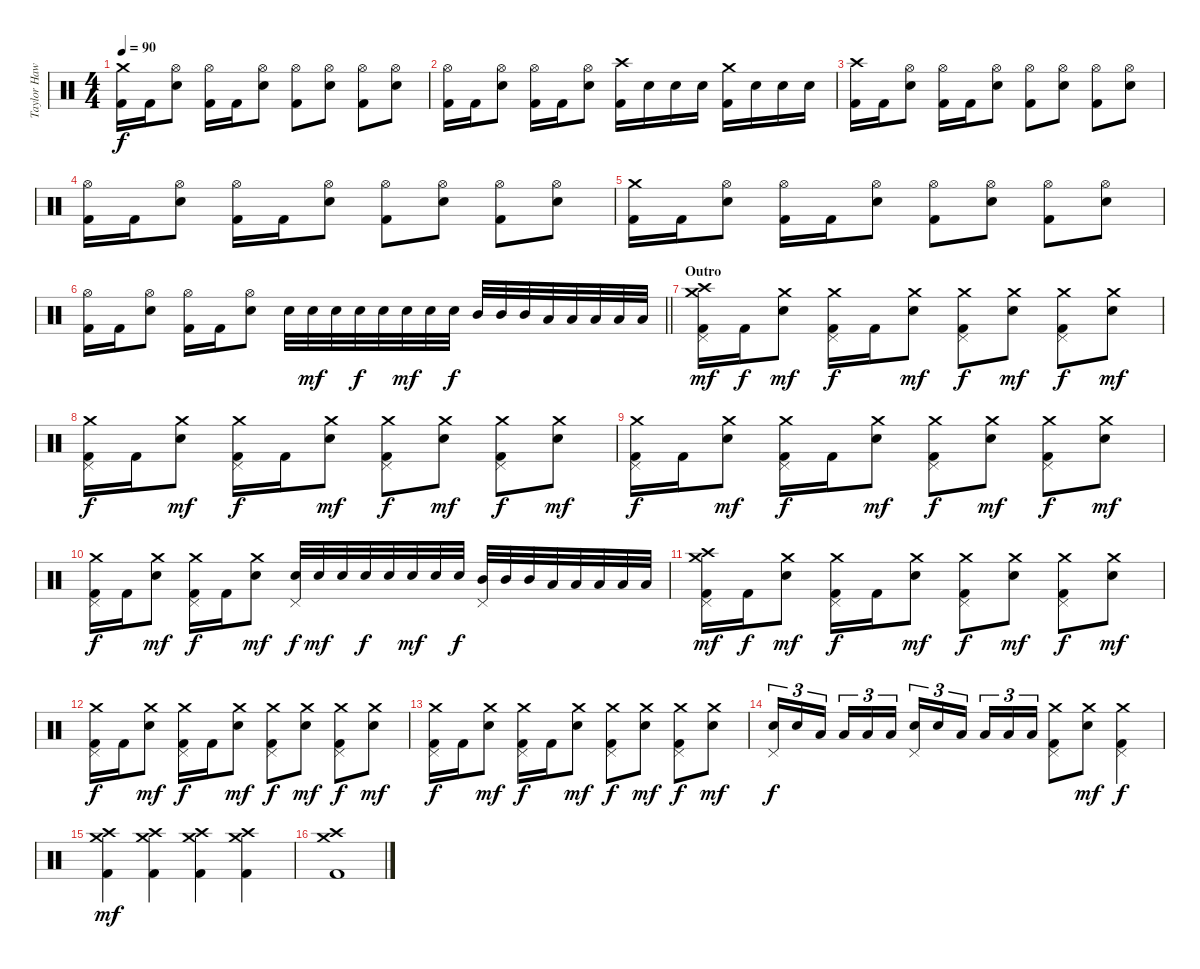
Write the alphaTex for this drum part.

\track ("Taylor Hawkins " "Taylor Haw") {instrument percussion}
\staff {score}
\articulation defaults
\ts (4 4)
\tempo 90
\clef neutral
\ks c
("Crash medium (hit)" "Kick (hit) 2").16{dy f} "Kick (hit) 2".16 ("Hi-Hat (open)" "Snare (hit) 2").8 ("Hi-Hat (open)" "Kick (hit) 2").16 "Kick (hit) 2".16 ("Hi-Hat (open)" "Snare (hit) 2").8 ("Hi-Hat (open)" "Kick (hit) 2").8 ("Hi-Hat (open)" "Snare (hit) 2").8 ("Hi-Hat (open)" "Kick (hit) 2").8 ("Hi-Hat (open)" "Snare (hit) 2").8 |
("Hi-Hat (open)" "Kick (hit) 2").16 "Kick (hit) 2".16 ("Hi-Hat (open)" "Snare (hit) 2").8 ("Hi-Hat (open)" "Kick (hit) 2").16 "Kick (hit) 2".16 ("Hi-Hat (open)" "Snare (hit) 2").8 ("Crash high (hit)" "Kick (hit) 2").16 "Snare (hit) 2".16 "Snare (hit) 2".16 "Snare (hit) 2".16 ("Crash medium (hit)" "Kick (hit) 2").16 "Snare (hit) 2".16 "Snare (hit) 2".16 "Snare (hit) 2".16 |
("Crash high (hit)" "Kick (hit) 2").16 "Kick (hit) 2".16 ("Hi-Hat (open)" "Snare (hit) 2").8 ("Hi-Hat (open)" "Kick (hit) 2").16 "Kick (hit) 2".16 ("Hi-Hat (open)" "Snare (hit) 2").8 ("Hi-Hat (open)" "Kick (hit) 2").8 ("Hi-Hat (open)" "Snare (hit) 2").8 ("Hi-Hat (open)" "Kick (hit) 2").8 ("Hi-Hat (open)" "Snare (hit) 2").8 |
("Hi-Hat (open)" "Kick (hit) 2").16 "Kick (hit) 2".16 ("Hi-Hat (open)" "Snare (hit) 2").8 ("Hi-Hat (open)" "Kick (hit) 2").16 "Kick (hit) 2".16 ("Hi-Hat (open)" "Snare (hit) 2").8 ("Hi-Hat (open)" "Kick (hit) 2").8 ("Hi-Hat (open)" "Snare (hit) 2").8 ("Hi-Hat (open)" "Kick (hit) 2").8 ("Hi-Hat (open)" "Snare (hit) 2").8 |
("Crash medium (hit)" "Kick (hit) 2").16 "Kick (hit) 2".16 ("Hi-Hat (open)" "Snare (hit) 2").8 ("Hi-Hat (open)" "Kick (hit) 2").16 "Kick (hit) 2".16 ("Hi-Hat (open)" "Snare (hit) 2").8 ("Hi-Hat (open)" "Kick (hit) 2").8 ("Hi-Hat (open)" "Snare (hit) 2").8 ("Hi-Hat (open)" "Kick (hit) 2").8 ("Hi-Hat (open)" "Snare (hit) 2").8 |
\barLineRight lightlight
("Hi-Hat (open)" "Kick (hit) 2").16 "Kick (hit) 2".16 ("Hi-Hat (open)" "Snare (hit) 2").8 ("Hi-Hat (open)" "Kick (hit) 2").16 "Kick (hit) 2".16 ("Hi-Hat (open)" "Snare (hit) 2").8 "Snare (hit) 2".32 "Snare (hit) 2".32{dy mf} "Snare (hit) 2".32 "Snare (hit) 2".32{dy f} "Snare (hit) 2".32 "Snare (hit) 2".32{dy mf} "Snare (hit) 2".32 "Snare (hit) 2".32{dy f} "Mid Tom (hit)".32 "Mid Tom (hit)".32 "Mid Tom (hit)".32 "Low Tom (hit)".32 "Low Tom (hit)".32 "Low Tom (hit)".32 "Low Floor Tom (hit)".32 "Low Floor Tom (hit)".32 |
\section ("" "Outro")
("Pedal Hi-Hat (hit)" "Crash high (hit)" "Crash medium (hit)" "Kick (hit) 2").16{dy mf} "Kick (hit) 2".16{dy f} ("Crash medium (hit)" "Snare (hit) 2").8{dy mf} ("Pedal Hi-Hat (hit)" "Crash medium (hit)" "Kick (hit) 2").16{dy f} "Kick (hit) 2".16 ("Crash medium (hit)" "Snare (hit) 2").8{dy mf} ("Pedal Hi-Hat (hit)" "Crash medium (hit)" "Kick (hit) 2").8{dy f} ("Crash medium (hit)" "Snare (hit) 2").8{dy mf} ("Pedal Hi-Hat (hit)" "Crash medium (hit)" "Kick (hit) 2").8{dy f} ("Crash medium (hit)" "Snare (hit) 2").8{dy mf} |
("Pedal Hi-Hat (hit)" "Crash medium (hit)" "Kick (hit) 2").16{dy f} "Kick (hit) 2".16 ("Crash medium (hit)" "Snare (hit) 2").8{dy mf} ("Pedal Hi-Hat (hit)" "Crash medium (hit)" "Kick (hit) 2").16{dy f} "Kick (hit) 2".16 ("Crash medium (hit)" "Snare (hit) 2").8{dy mf} ("Pedal Hi-Hat (hit)" "Crash medium (hit)" "Kick (hit) 2").8{dy f} ("Crash medium (hit)" "Snare (hit) 2").8{dy mf} ("Pedal Hi-Hat (hit)" "Crash medium (hit)" "Kick (hit) 2").8{dy f} ("Crash medium (hit)" "Snare (hit) 2").8{dy mf} |
("Pedal Hi-Hat (hit)" "Crash medium (hit)" "Kick (hit) 2").16{dy f} "Kick (hit) 2".16 ("Crash medium (hit)" "Snare (hit) 2").8{dy mf} ("Pedal Hi-Hat (hit)" "Crash medium (hit)" "Kick (hit) 2").16{dy f} "Kick (hit) 2".16 ("Crash medium (hit)" "Snare (hit) 2").8{dy mf} ("Pedal Hi-Hat (hit)" "Crash medium (hit)" "Kick (hit) 2").8{dy f} ("Crash medium (hit)" "Snare (hit) 2").8{dy mf} ("Pedal Hi-Hat (hit)" "Crash medium (hit)" "Kick (hit) 2").8{dy f} ("Crash medium (hit)" "Snare (hit) 2").8{dy mf} |
("Pedal Hi-Hat (hit)" "Crash medium (hit)" "Kick (hit) 2").16{dy f} "Kick (hit) 2".16 ("Crash medium (hit)" "Snare (hit) 2").8{dy mf} ("Pedal Hi-Hat (hit)" "Crash medium (hit)" "Kick (hit) 2").16{dy f} "Kick (hit) 2".16 ("Crash medium (hit)" "Snare (hit) 2").8{dy mf} ("Pedal Hi-Hat (hit)" "Snare (hit) 2").32{dy f} "Snare (hit) 2".32{dy mf} "Snare (hit) 2".32 "Snare (hit) 2".32{dy f} "Snare (hit) 2".32 "Snare (hit) 2".32{dy mf} "Snare (hit) 2".32 "Snare (hit) 2".32{dy f} ("Pedal Hi-Hat (hit)" "Mid Tom (hit)").32 "Mid Tom (hit)".32 "Mid Tom (hit)".32 "Low Tom (hit)".32 "Low Tom (hit)".32 "Low Tom (hit)".32 "Low Floor Tom (hit)".32 "Low Floor Tom (hit)".32 |
("Pedal Hi-Hat (hit)" "Crash high (hit)" "Crash medium (hit)" "Kick (hit) 2").16{dy mf} "Kick (hit) 2".16{dy f} ("Crash medium (hit)" "Snare (hit) 2").8{dy mf} ("Pedal Hi-Hat (hit)" "Crash medium (hit)" "Kick (hit) 2").16{dy f} "Kick (hit) 2".16 ("Crash medium (hit)" "Snare (hit) 2").8{dy mf} ("Pedal Hi-Hat (hit)" "Crash medium (hit)" "Kick (hit) 2").8{dy f} ("Crash medium (hit)" "Snare (hit) 2").8{dy mf} ("Pedal Hi-Hat (hit)" "Crash medium (hit)" "Kick (hit) 2").8{dy f} ("Crash medium (hit)" "Snare (hit) 2").8{dy mf} |
("Pedal Hi-Hat (hit)" "Crash medium (hit)" "Kick (hit) 2").16{dy f} "Kick (hit) 2".16 ("Crash medium (hit)" "Snare (hit) 2").8{dy mf} ("Pedal Hi-Hat (hit)" "Crash medium (hit)" "Kick (hit) 2").16{dy f} "Kick (hit) 2".16 ("Crash medium (hit)" "Snare (hit) 2").8{dy mf} ("Pedal Hi-Hat (hit)" "Crash medium (hit)" "Kick (hit) 2").8{dy f} ("Crash medium (hit)" "Snare (hit) 2").8{dy mf} ("Pedal Hi-Hat (hit)" "Crash medium (hit)" "Kick (hit) 2").8{dy f} ("Crash medium (hit)" "Snare (hit) 2").8{dy mf} |
("Pedal Hi-Hat (hit)" "Crash medium (hit)" "Kick (hit) 2").16{dy f} "Kick (hit) 2".16 ("Crash medium (hit)" "Snare (hit) 2").8{dy mf} ("Pedal Hi-Hat (hit)" "Crash medium (hit)" "Kick (hit) 2").16{dy f} "Kick (hit) 2".16 ("Crash medium (hit)" "Snare (hit) 2").8{dy mf} ("Pedal Hi-Hat (hit)" "Crash medium (hit)" "Kick (hit) 2").8{dy f} ("Crash medium (hit)" "Snare (hit) 2").8{dy mf} ("Pedal Hi-Hat (hit)" "Crash medium (hit)" "Kick (hit) 2").8{dy f} ("Crash medium (hit)" "Snare (hit) 2").8{dy mf} |
("Pedal Hi-Hat (hit)" "Snare (hit) 2").16{tu (3 2) dy f} "Snare (hit) 2".16{tu (3 2)} "Low Tom (hit)".16{tu (3 2) beam splitsecondary} "Low Tom (hit)".16{tu (3 2)} "Low Floor Tom (hit)".16{tu (3 2)} "Low Floor Tom (hit)".16{tu (3 2)} ("Pedal Hi-Hat (hit)" "Snare (hit) 2").16{tu (3 2)} "Snare (hit) 2".16{tu (3 2)} "Low Tom (hit)".16{tu (3 2) beam splitsecondary} "Low Tom (hit)".16{tu (3 2)} "Low Floor Tom (hit)".16{tu (3 2)} "Low Floor Tom (hit)".16{tu (3 2)} ("Pedal Hi-Hat (hit)" "Crash medium (hit)" "Kick (hit) 2").8 ("Crash medium (hit)" "Snare (hit) 2").8{dy mf} ("Pedal Hi-Hat (hit)" "Crash medium (hit)" "Kick (hit) 2").4{dy f} |
("Crash high (hit)" "Crash medium (hit)" "Kick (hit) 2").4{dy mf} ("Crash high (hit)" "Crash medium (hit)" "Kick (hit) 2").4 ("Crash high (hit)" "Crash medium (hit)" "Kick (hit) 2").4 ("Crash high (hit)" "Crash medium (hit)" "Kick (hit) 2").4 |
("Crash high (hit)" "Crash medium (hit)" "Kick (hit) 2").1
